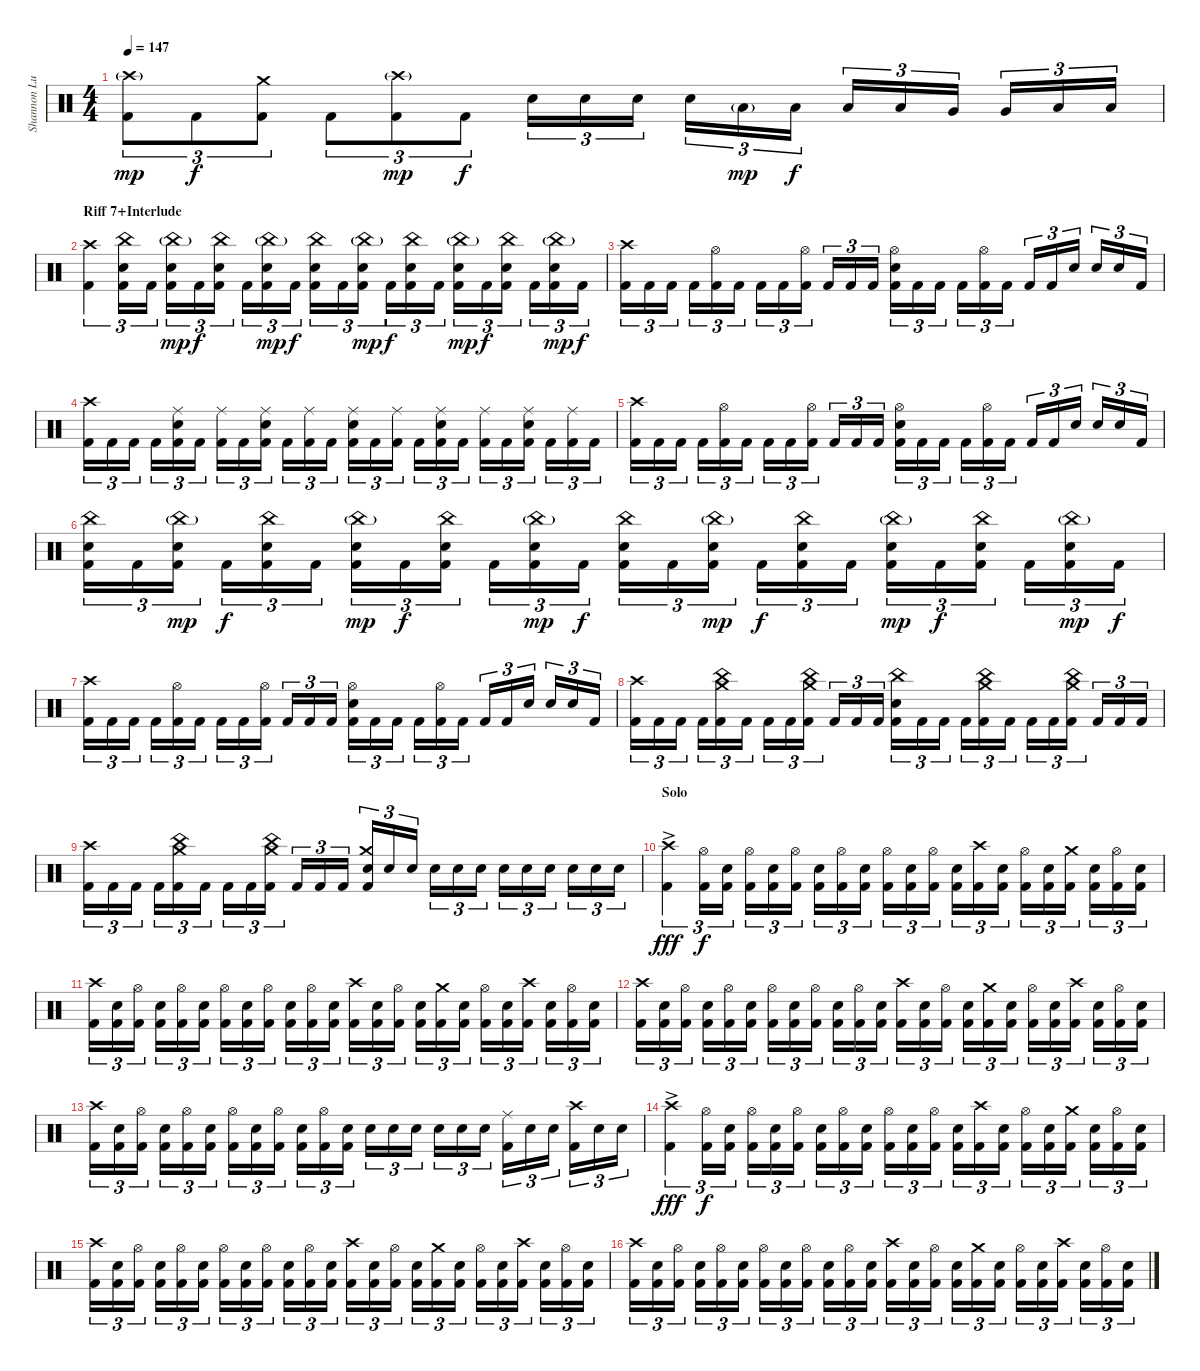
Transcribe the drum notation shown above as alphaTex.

\track ("Shannon Lucas (Drums)" "Shannon Lu") {instrument percussion}
\staff {score}
\articulation defaults
\ts (4 4)
\tempo 147
\clef neutral
\ks c
("Crash high (hit)"{g} "Kick (hit) 2").8{tu (3 2) dy mp} "Kick (hit) 2".8{tu (3 2) dy f} ("Crash medium (hit)" "Kick (hit) 2").8{tu (3 2)} "Kick (hit) 2".8{tu (3 2)} ("Crash high (hit)"{g} "Kick (hit) 2").8{tu (3 2) dy mp} "Kick (hit) 2".8{tu (3 2) dy f} "Snare (hit) 2".16{tu (3 2)} "Snare (hit) 2".16{tu (3 2)} "Snare (hit) 2".16{tu (3 2)} "Snare (hit) 2".16{tu (3 2)} "Low Tom (hit)"{g}.16{tu (3 2) dy mp} "Low Tom (hit)".16{tu (3 2) dy f} "Low Tom (hit)".16{tu (3 2)} "Low Tom (hit)".16{tu (3 2)} "Very Low Tom (hit)".16{tu (3 2)} "Very Low Tom (hit)".16{tu (3 2)} "Low Floor Tom (hit)".16{tu (3 2)} "Low Floor Tom (hit)".16{tu (3 2)} |
\section ("" "Riff 7+Interlude")
("Crash high (hit)" "Kick (hit) 2").4{tu (3 2)} ("China (hit)" "Snare (hit) 2" "Kick (hit) 2").16{tu (3 2)} "Kick (hit) 2".16{tu (3 2)} ("China (hit)"{g} "Snare (hit) 2" "Kick (hit) 2").16{tu (3 2) dy mp} "Kick (hit) 2".16{tu (3 2) dy f} ("China (hit)" "Snare (hit) 2" "Kick (hit) 2").16{tu (3 2)} "Kick (hit) 2".16{tu (3 2)} ("China (hit)"{g} "Snare (hit) 2" "Kick (hit) 2").16{tu (3 2) dy mp} "Kick (hit) 2".16{tu (3 2) dy f} ("China (hit)" "Snare (hit) 2" "Kick (hit) 2").16{tu (3 2)} "Kick (hit) 2".16{tu (3 2)} ("China (hit)"{g} "Snare (hit) 2" "Kick (hit) 2").16{tu (3 2) dy mp} "Kick (hit) 2".16{tu (3 2) dy f} ("China (hit)" "Snare (hit) 2" "Kick (hit) 2").16{tu (3 2)} "Kick (hit) 2".16{tu (3 2)} ("China (hit)"{g} "Snare (hit) 2" "Kick (hit) 2").16{tu (3 2) dy mp} "Kick (hit) 2".16{tu (3 2) dy f} ("China (hit)" "Snare (hit) 2" "Kick (hit) 2").16{tu (3 2)} "Kick (hit) 2".16{tu (3 2)} ("China (hit)"{g} "Snare (hit) 2" "Kick (hit) 2").16{tu (3 2) dy mp} "Kick (hit) 2".16{tu (3 2) dy f} |
("Crash high (hit)" "Kick (hit) 2").16{tu (3 2)} "Kick (hit) 2".16{tu (3 2)} "Kick (hit) 2".16{tu (3 2)} "Kick (hit) 2".16{tu (3 2)} ("Hi-Hat (open)" "Kick (hit) 2").16{tu (3 2)} "Kick (hit) 2".16{tu (3 2)} "Kick (hit) 2".16{tu (3 2)} "Kick (hit) 2".16{tu (3 2)} ("Hi-Hat (open)" "Kick (hit) 2").16{tu (3 2)} "Kick (hit) 2".16{tu (3 2)} "Kick (hit) 2".16{tu (3 2)} "Kick (hit) 2".16{tu (3 2)} ("Hi-Hat (open)" "Snare (hit) 2" "Kick (hit) 2").16{tu (3 2)} "Kick (hit) 2".16{tu (3 2)} "Kick (hit) 2".16{tu (3 2)} "Kick (hit) 2".16{tu (3 2)} ("Hi-Hat (open)" "Kick (hit) 2").16{tu (3 2)} "Kick (hit) 2".16{tu (3 2)} "Kick (hit) 2".16{tu (3 2)} "Kick (hit) 2".16{tu (3 2)} "Snare (hit) 2".16{tu (3 2)} "Snare (hit) 2".16{tu (3 2)} "Snare (hit) 2".16{tu (3 2)} "Kick (hit) 2".16{tu (3 2)} |
("Crash high (hit)" "Kick (hit) 2").16{tu (3 2)} "Kick (hit) 2".16{tu (3 2)} "Kick (hit) 2".16{tu (3 2)} "Kick (hit) 2".16{tu (3 2)} ("Ride (middle)" "Snare (hit) 2" "Kick (hit) 2").16{tu (3 2)} "Kick (hit) 2".16{tu (3 2)} ("Ride (middle)" "Kick (hit) 2").16{tu (3 2)} "Kick (hit) 2".16{tu (3 2)} ("Ride (middle)" "Snare (hit) 2" "Kick (hit) 2").16{tu (3 2)} "Kick (hit) 2".16{tu (3 2)} ("Ride (middle)" "Kick (hit) 2").16{tu (3 2)} "Kick (hit) 2".16{tu (3 2)} ("Ride (middle)" "Snare (hit) 2" "Kick (hit) 2").16{tu (3 2)} "Kick (hit) 2".16{tu (3 2)} ("Ride (middle)" "Kick (hit) 2").16{tu (3 2)} "Kick (hit) 2".16{tu (3 2)} ("Ride (middle)" "Snare (hit) 2" "Kick (hit) 2").16{tu (3 2)} "Kick (hit) 2".16{tu (3 2)} ("Ride (middle)" "Kick (hit) 2").16{tu (3 2)} "Kick (hit) 2".16{tu (3 2)} ("Ride (middle)" "Snare (hit) 2" "Kick (hit) 2").16{tu (3 2)} "Kick (hit) 2".16{tu (3 2)} ("Ride (middle)" "Kick (hit) 2").16{tu (3 2)} "Kick (hit) 2".16{tu (3 2)} |
("Crash high (hit)" "Kick (hit) 2").16{tu (3 2)} "Kick (hit) 2".16{tu (3 2)} "Kick (hit) 2".16{tu (3 2)} "Kick (hit) 2".16{tu (3 2)} ("Hi-Hat (open)" "Kick (hit) 2").16{tu (3 2)} "Kick (hit) 2".16{tu (3 2)} "Kick (hit) 2".16{tu (3 2)} "Kick (hit) 2".16{tu (3 2)} ("Hi-Hat (open)" "Kick (hit) 2").16{tu (3 2)} "Kick (hit) 2".16{tu (3 2)} "Kick (hit) 2".16{tu (3 2)} "Kick (hit) 2".16{tu (3 2)} ("Hi-Hat (open)" "Snare (hit) 2" "Kick (hit) 2").16{tu (3 2)} "Kick (hit) 2".16{tu (3 2)} "Kick (hit) 2".16{tu (3 2)} "Kick (hit) 2".16{tu (3 2)} ("Hi-Hat (open)" "Kick (hit) 2").16{tu (3 2)} "Kick (hit) 2".16{tu (3 2)} "Kick (hit) 2".16{tu (3 2)} "Kick (hit) 2".16{tu (3 2)} "Snare (hit) 2".16{tu (3 2)} "Snare (hit) 2".16{tu (3 2)} "Snare (hit) 2".16{tu (3 2)} "Kick (hit) 2".16{tu (3 2)} |
("China (hit)" "Snare (hit) 2" "Kick (hit) 2").16{tu (3 2)} "Kick (hit) 2".16{tu (3 2)} ("China (hit)"{g} "Snare (hit) 2" "Kick (hit) 2").16{tu (3 2) dy mp} "Kick (hit) 2".16{tu (3 2) dy f} ("China (hit)" "Snare (hit) 2" "Kick (hit) 2").16{tu (3 2)} "Kick (hit) 2".16{tu (3 2)} ("China (hit)"{g} "Snare (hit) 2" "Kick (hit) 2").16{tu (3 2) dy mp} "Kick (hit) 2".16{tu (3 2) dy f} ("China (hit)" "Snare (hit) 2" "Kick (hit) 2").16{tu (3 2)} "Kick (hit) 2".16{tu (3 2)} ("China (hit)"{g} "Snare (hit) 2" "Kick (hit) 2").16{tu (3 2) dy mp} "Kick (hit) 2".16{tu (3 2) dy f} ("China (hit)" "Snare (hit) 2" "Kick (hit) 2").16{tu (3 2)} "Kick (hit) 2".16{tu (3 2)} ("China (hit)"{g} "Snare (hit) 2" "Kick (hit) 2").16{tu (3 2) dy mp} "Kick (hit) 2".16{tu (3 2) dy f} ("China (hit)" "Snare (hit) 2" "Kick (hit) 2").16{tu (3 2)} "Kick (hit) 2".16{tu (3 2)} ("China (hit)"{g} "Snare (hit) 2" "Kick (hit) 2").16{tu (3 2) dy mp} "Kick (hit) 2".16{tu (3 2) dy f} ("China (hit)" "Snare (hit) 2" "Kick (hit) 2").16{tu (3 2)} "Kick (hit) 2".16{tu (3 2)} ("China (hit)"{g} "Snare (hit) 2" "Kick (hit) 2").16{tu (3 2) dy mp} "Kick (hit) 2".16{tu (3 2) dy f} |
("Crash high (hit)" "Kick (hit) 2").16{tu (3 2)} "Kick (hit) 2".16{tu (3 2)} "Kick (hit) 2".16{tu (3 2)} "Kick (hit) 2".16{tu (3 2)} ("Hi-Hat (open)" "Kick (hit) 2").16{tu (3 2)} "Kick (hit) 2".16{tu (3 2)} "Kick (hit) 2".16{tu (3 2)} "Kick (hit) 2".16{tu (3 2)} ("Hi-Hat (open)" "Kick (hit) 2").16{tu (3 2)} "Kick (hit) 2".16{tu (3 2)} "Kick (hit) 2".16{tu (3 2)} "Kick (hit) 2".16{tu (3 2)} ("Hi-Hat (open)" "Snare (hit) 2" "Kick (hit) 2").16{tu (3 2)} "Kick (hit) 2".16{tu (3 2)} "Kick (hit) 2".16{tu (3 2)} "Kick (hit) 2".16{tu (3 2)} ("Hi-Hat (open)" "Kick (hit) 2").16{tu (3 2)} "Kick (hit) 2".16{tu (3 2)} "Kick (hit) 2".16{tu (3 2)} "Kick (hit) 2".16{tu (3 2)} "Snare (hit) 2".16{tu (3 2)} "Snare (hit) 2".16{tu (3 2)} "Snare (hit) 2".16{tu (3 2)} "Kick (hit) 2".16{tu (3 2)} |
("Crash high (hit)" "Kick (hit) 2").16{tu (3 2)} "Kick (hit) 2".16{tu (3 2)} "Kick (hit) 2".16{tu (3 2)} "Kick (hit) 2".16{tu (3 2)} ("Crash medium (hit)" "China (hit)" "Kick (hit) 2").16{tu (3 2)} "Kick (hit) 2".16{tu (3 2)} "Kick (hit) 2".16{tu (3 2)} "Kick (hit) 2".16{tu (3 2)} ("Crash medium (hit)" "China (hit)" "Kick (hit) 2").16{tu (3 2)} "Kick (hit) 2".16{tu (3 2)} "Kick (hit) 2".16{tu (3 2)} "Kick (hit) 2".16{tu (3 2)} ("Snare (hit) 2" "China (hit)" "Kick (hit) 2").16{tu (3 2)} "Kick (hit) 2".16{tu (3 2)} "Kick (hit) 2".16{tu (3 2)} "Kick (hit) 2".16{tu (3 2)} ("Crash medium (hit)" "China (hit)" "Kick (hit) 2").16{tu (3 2)} "Kick (hit) 2".16{tu (3 2)} "Kick (hit) 2".16{tu (3 2)} "Kick (hit) 2".16{tu (3 2)} ("Crash medium (hit)" "China (hit)" "Kick (hit) 2").16{tu (3 2)} "Kick (hit) 2".16{tu (3 2)} "Kick (hit) 2".16{tu (3 2)} "Kick (hit) 2".16{tu (3 2)} |
("Crash high (hit)" "Kick (hit) 2").16{tu (3 2)} "Kick (hit) 2".16{tu (3 2)} "Kick (hit) 2".16{tu (3 2)} "Kick (hit) 2".16{tu (3 2)} ("Crash medium (hit)" "China (hit)" "Kick (hit) 2").16{tu (3 2)} "Kick (hit) 2".16{tu (3 2)} "Kick (hit) 2".16{tu (3 2)} "Kick (hit) 2".16{tu (3 2)} ("Crash medium (hit)" "China (hit)" "Kick (hit) 2").16{tu (3 2)} "Kick (hit) 2".16{tu (3 2)} "Kick (hit) 2".16{tu (3 2)} "Kick (hit) 2".16{tu (3 2)} ("Snare (hit) 2" "Crash medium (hit)" "Kick (hit) 2").16{tu (3 2)} "Snare (hit) 2".16{tu (3 2)} "Snare (hit) 2".16{tu (3 2)} "Snare (hit) 2".16{tu (3 2)} "Snare (hit) 2".16{tu (3 2)} "Snare (hit) 2".16{tu (3 2)} "Snare (hit) 2".16{tu (3 2)} "Snare (hit) 2".16{tu (3 2)} "Snare (hit) 2".16{tu (3 2)} "Snare (hit) 2".16{tu (3 2)} "Snare (hit) 2".16{tu (3 2)} "Snare (hit) 2".16{tu (3 2)} |
\section ("" "Solo")
("Crash high (hit)"{ac} "Kick (hit) 2").4{tu (3 2) dy fff} ("Hi-Hat (open)" "Kick (hit) 2").16{tu (3 2) dy f} ("Snare (hit) 2" "Kick (hit) 2").16{tu (3 2)} ("Hi-Hat (open)" "Kick (hit) 2").16{tu (3 2)} ("Snare (hit) 2" "Kick (hit) 2").16{tu (3 2)} ("Hi-Hat (open)" "Kick (hit) 2").16{tu (3 2)} ("Snare (hit) 2" "Kick (hit) 2").16{tu (3 2)} ("Hi-Hat (open)" "Kick (hit) 2").16{tu (3 2)} ("Snare (hit) 2" "Kick (hit) 2").16{tu (3 2)} ("Hi-Hat (open)" "Kick (hit) 2").16{tu (3 2)} ("Snare (hit) 2" "Kick (hit) 2").16{tu (3 2)} ("Hi-Hat (open)" "Kick (hit) 2").16{tu (3 2)} ("Snare (hit) 2" "Kick (hit) 2").16{tu (3 2)} ("Crash high (hit)" "Kick (hit) 2").16{tu (3 2)} ("Snare (hit) 2" "Kick (hit) 2").16{tu (3 2)} ("Hi-Hat (open)" "Kick (hit) 2").16{tu (3 2)} ("Snare (hit) 2" "Kick (hit) 2").16{tu (3 2)} ("Crash medium (hit)" "Kick (hit) 2").16{tu (3 2)} ("Snare (hit) 2" "Kick (hit) 2").16{tu (3 2)} ("Hi-Hat (open)" "Kick (hit) 2").16{tu (3 2)} ("Snare (hit) 2" "Kick (hit) 2").16{tu (3 2)} |
("Crash high (hit)" "Kick (hit) 2").16{tu (3 2)} ("Snare (hit) 2" "Kick (hit) 2").16{tu (3 2)} ("Hi-Hat (open)" "Kick (hit) 2").16{tu (3 2)} ("Snare (hit) 2" "Kick (hit) 2").16{tu (3 2)} ("Hi-Hat (open)" "Kick (hit) 2").16{tu (3 2)} ("Snare (hit) 2" "Kick (hit) 2").16{tu (3 2)} ("Hi-Hat (open)" "Kick (hit) 2").16{tu (3 2)} ("Snare (hit) 2" "Kick (hit) 2").16{tu (3 2)} ("Hi-Hat (open)" "Kick (hit) 2").16{tu (3 2)} ("Snare (hit) 2" "Kick (hit) 2").16{tu (3 2)} ("Hi-Hat (open)" "Kick (hit) 2").16{tu (3 2)} ("Snare (hit) 2" "Kick (hit) 2").16{tu (3 2)} ("Crash high (hit)" "Kick (hit) 2").16{tu (3 2)} ("Snare (hit) 2" "Kick (hit) 2").16{tu (3 2)} ("Hi-Hat (open)" "Kick (hit) 2").16{tu (3 2)} ("Snare (hit) 2" "Kick (hit) 2").16{tu (3 2)} ("Crash medium (hit)" "Kick (hit) 2").16{tu (3 2)} ("Snare (hit) 2" "Kick (hit) 2").16{tu (3 2)} ("Hi-Hat (open)" "Kick (hit) 2").16{tu (3 2)} ("Snare (hit) 2" "Kick (hit) 2").16{tu (3 2)} ("Crash high (hit)" "Kick (hit) 2").16{tu (3 2)} ("Snare (hit) 2" "Kick (hit) 2").16{tu (3 2)} ("Hi-Hat (open)" "Kick (hit) 2").16{tu (3 2)} ("Snare (hit) 2" "Kick (hit) 2").16{tu (3 2)} |
("Crash high (hit)" "Kick (hit) 2").16{tu (3 2)} ("Snare (hit) 2" "Kick (hit) 2").16{tu (3 2)} ("Hi-Hat (open)" "Kick (hit) 2").16{tu (3 2)} ("Snare (hit) 2" "Kick (hit) 2").16{tu (3 2)} ("Hi-Hat (open)" "Kick (hit) 2").16{tu (3 2)} ("Snare (hit) 2" "Kick (hit) 2").16{tu (3 2)} ("Hi-Hat (open)" "Kick (hit) 2").16{tu (3 2)} ("Snare (hit) 2" "Kick (hit) 2").16{tu (3 2)} ("Hi-Hat (open)" "Kick (hit) 2").16{tu (3 2)} ("Snare (hit) 2" "Kick (hit) 2").16{tu (3 2)} ("Hi-Hat (open)" "Kick (hit) 2").16{tu (3 2)} ("Snare (hit) 2" "Kick (hit) 2").16{tu (3 2)} ("Crash high (hit)" "Kick (hit) 2").16{tu (3 2)} ("Snare (hit) 2" "Kick (hit) 2").16{tu (3 2)} ("Hi-Hat (open)" "Kick (hit) 2").16{tu (3 2)} ("Snare (hit) 2" "Kick (hit) 2").16{tu (3 2)} ("Crash medium (hit)" "Kick (hit) 2").16{tu (3 2)} ("Snare (hit) 2" "Kick (hit) 2").16{tu (3 2)} ("Hi-Hat (open)" "Kick (hit) 2").16{tu (3 2)} ("Snare (hit) 2" "Kick (hit) 2").16{tu (3 2)} ("Crash high (hit)" "Kick (hit) 2").16{tu (3 2)} ("Snare (hit) 2" "Kick (hit) 2").16{tu (3 2)} ("Hi-Hat (open)" "Kick (hit) 2").16{tu (3 2)} ("Snare (hit) 2" "Kick (hit) 2").16{tu (3 2)} |
("Crash high (hit)" "Kick (hit) 2").16{tu (3 2)} ("Snare (hit) 2" "Kick (hit) 2").16{tu (3 2)} ("Hi-Hat (open)" "Kick (hit) 2").16{tu (3 2)} ("Snare (hit) 2" "Kick (hit) 2").16{tu (3 2)} ("Hi-Hat (open)" "Kick (hit) 2").16{tu (3 2)} ("Snare (hit) 2" "Kick (hit) 2").16{tu (3 2)} ("Hi-Hat (open)" "Kick (hit) 2").16{tu (3 2)} ("Snare (hit) 2" "Kick (hit) 2").16{tu (3 2)} ("Hi-Hat (open)" "Kick (hit) 2").16{tu (3 2)} ("Snare (hit) 2" "Kick (hit) 2").16{tu (3 2)} ("Hi-Hat (open)" "Kick (hit) 2").16{tu (3 2)} ("Snare (hit) 2" "Kick (hit) 2").16{tu (3 2)} "Snare (hit) 2".16{tu (3 2)} "Snare (hit) 2".16{tu (3 2)} "Snare (hit) 2".16{tu (3 2)} "Snare (hit) 2".16{tu (3 2)} "Snare (hit) 2".16{tu (3 2)} "Snare (hit) 2".16{tu (3 2)} ("Ride (middle)" "Kick (hit) 2").16{tu (3 2)} "Snare (hit) 2".16{tu (3 2)} "Snare (hit) 2".16{tu (3 2)} ("Crash high (hit)" "Kick (hit) 2").16{tu (3 2)} "Snare (hit) 2".16{tu (3 2)} "Snare (hit) 2".16{tu (3 2)} |
("Crash high (hit)"{ac} "Kick (hit) 2").4{tu (3 2) dy fff} ("Hi-Hat (open)" "Kick (hit) 2").16{tu (3 2) dy f} ("Snare (hit) 2" "Kick (hit) 2").16{tu (3 2)} ("Hi-Hat (open)" "Kick (hit) 2").16{tu (3 2)} ("Snare (hit) 2" "Kick (hit) 2").16{tu (3 2)} ("Hi-Hat (open)" "Kick (hit) 2").16{tu (3 2)} ("Snare (hit) 2" "Kick (hit) 2").16{tu (3 2)} ("Hi-Hat (open)" "Kick (hit) 2").16{tu (3 2)} ("Snare (hit) 2" "Kick (hit) 2").16{tu (3 2)} ("Hi-Hat (open)" "Kick (hit) 2").16{tu (3 2)} ("Snare (hit) 2" "Kick (hit) 2").16{tu (3 2)} ("Hi-Hat (open)" "Kick (hit) 2").16{tu (3 2)} ("Snare (hit) 2" "Kick (hit) 2").16{tu (3 2)} ("Crash high (hit)" "Kick (hit) 2").16{tu (3 2)} ("Snare (hit) 2" "Kick (hit) 2").16{tu (3 2)} ("Hi-Hat (open)" "Kick (hit) 2").16{tu (3 2)} ("Snare (hit) 2" "Kick (hit) 2").16{tu (3 2)} ("Crash medium (hit)" "Kick (hit) 2").16{tu (3 2)} ("Snare (hit) 2" "Kick (hit) 2").16{tu (3 2)} ("Hi-Hat (open)" "Kick (hit) 2").16{tu (3 2)} ("Snare (hit) 2" "Kick (hit) 2").16{tu (3 2)} |
("Crash high (hit)" "Kick (hit) 2").16{tu (3 2)} ("Snare (hit) 2" "Kick (hit) 2").16{tu (3 2)} ("Hi-Hat (open)" "Kick (hit) 2").16{tu (3 2)} ("Snare (hit) 2" "Kick (hit) 2").16{tu (3 2)} ("Hi-Hat (open)" "Kick (hit) 2").16{tu (3 2)} ("Snare (hit) 2" "Kick (hit) 2").16{tu (3 2)} ("Hi-Hat (open)" "Kick (hit) 2").16{tu (3 2)} ("Snare (hit) 2" "Kick (hit) 2").16{tu (3 2)} ("Hi-Hat (open)" "Kick (hit) 2").16{tu (3 2)} ("Snare (hit) 2" "Kick (hit) 2").16{tu (3 2)} ("Hi-Hat (open)" "Kick (hit) 2").16{tu (3 2)} ("Snare (hit) 2" "Kick (hit) 2").16{tu (3 2)} ("Crash high (hit)" "Kick (hit) 2").16{tu (3 2)} ("Snare (hit) 2" "Kick (hit) 2").16{tu (3 2)} ("Hi-Hat (open)" "Kick (hit) 2").16{tu (3 2)} ("Snare (hit) 2" "Kick (hit) 2").16{tu (3 2)} ("Crash medium (hit)" "Kick (hit) 2").16{tu (3 2)} ("Snare (hit) 2" "Kick (hit) 2").16{tu (3 2)} ("Hi-Hat (open)" "Kick (hit) 2").16{tu (3 2)} ("Snare (hit) 2" "Kick (hit) 2").16{tu (3 2)} ("Crash high (hit)" "Kick (hit) 2").16{tu (3 2)} ("Snare (hit) 2" "Kick (hit) 2").16{tu (3 2)} ("Hi-Hat (open)" "Kick (hit) 2").16{tu (3 2)} ("Snare (hit) 2" "Kick (hit) 2").16{tu (3 2)} |
("Crash high (hit)" "Kick (hit) 2").16{tu (3 2)} ("Snare (hit) 2" "Kick (hit) 2").16{tu (3 2)} ("Hi-Hat (open)" "Kick (hit) 2").16{tu (3 2)} ("Snare (hit) 2" "Kick (hit) 2").16{tu (3 2)} ("Hi-Hat (open)" "Kick (hit) 2").16{tu (3 2)} ("Snare (hit) 2" "Kick (hit) 2").16{tu (3 2)} ("Hi-Hat (open)" "Kick (hit) 2").16{tu (3 2)} ("Snare (hit) 2" "Kick (hit) 2").16{tu (3 2)} ("Hi-Hat (open)" "Kick (hit) 2").16{tu (3 2)} ("Snare (hit) 2" "Kick (hit) 2").16{tu (3 2)} ("Hi-Hat (open)" "Kick (hit) 2").16{tu (3 2)} ("Snare (hit) 2" "Kick (hit) 2").16{tu (3 2)} ("Crash high (hit)" "Kick (hit) 2").16{tu (3 2)} ("Snare (hit) 2" "Kick (hit) 2").16{tu (3 2)} ("Hi-Hat (open)" "Kick (hit) 2").16{tu (3 2)} ("Snare (hit) 2" "Kick (hit) 2").16{tu (3 2)} ("Crash medium (hit)" "Kick (hit) 2").16{tu (3 2)} ("Snare (hit) 2" "Kick (hit) 2").16{tu (3 2)} ("Hi-Hat (open)" "Kick (hit) 2").16{tu (3 2)} ("Snare (hit) 2" "Kick (hit) 2").16{tu (3 2)} ("Crash high (hit)" "Kick (hit) 2").16{tu (3 2)} ("Snare (hit) 2" "Kick (hit) 2").16{tu (3 2)} ("Hi-Hat (open)" "Kick (hit) 2").16{tu (3 2)} ("Snare (hit) 2" "Kick (hit) 2").16{tu (3 2)}
